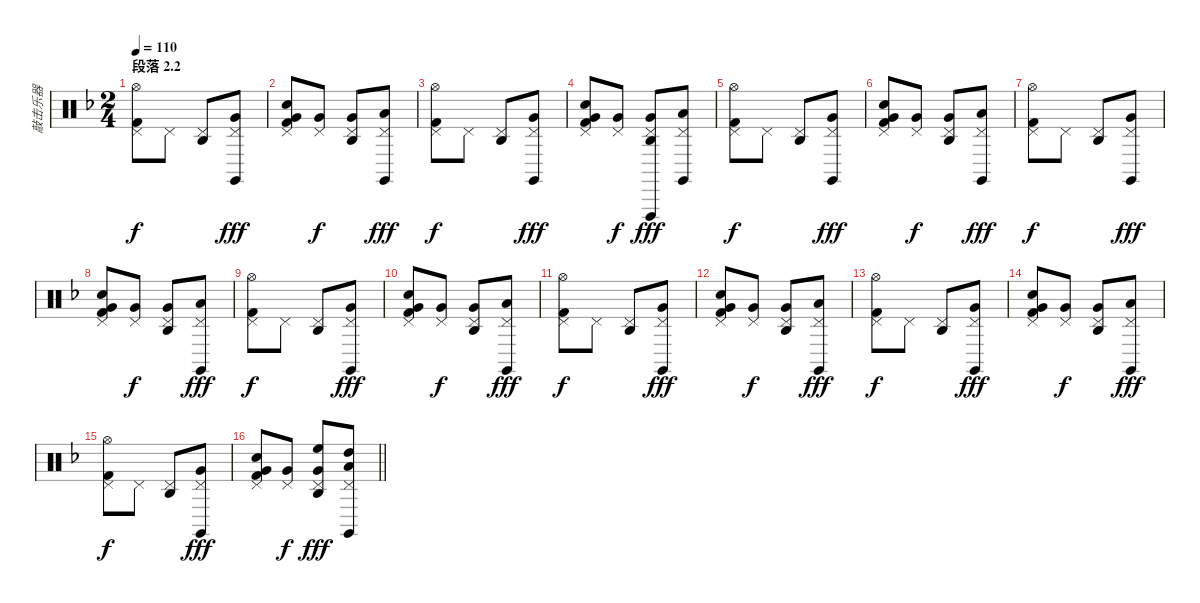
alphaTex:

\track ("敲击乐器" "敲击乐器") {instrument percussion}
\staff {score}
\articulation defaults
\ts (2 4)
\section ("" "段落 2.2")
\tempo 110
\clef neutral
\ks dminor
("Hi-Hat (open)" "Pedal Hi-Hat (hit)" "Kick (hit) 2").8{dy f} "Pedal Hi-Hat (hit)".8 ("Pedal Hi-Hat (hit)" "Agogo high (hit)").8 ("Pedal Hi-Hat (hit)" "Claves (hit)" "Very Low Tom (hit)").8{dy fff} |
("Pedal Hi-Hat (hit)" "Electric Snare (hit)" "Very Low Tom (hit)" "Kick (hit) 2").8 ("Pedal Hi-Hat (hit)" "Very Low Tom (hit)").8{dy f} ("Pedal Hi-Hat (hit)" "Agogo high (hit)" "Very Low Tom (hit)").8 ("Pedal Hi-Hat (hit)" "Claves (hit)" "Low Floor Tom (hit)").8{dy fff} |
("Hi-Hat (open)" "Pedal Hi-Hat (hit)" "Kick (hit) 2").8{dy f} "Pedal Hi-Hat (hit)".8 ("Pedal Hi-Hat (hit)" "Agogo high (hit)").8 ("Pedal Hi-Hat (hit)" "Claves (hit)" "Very Low Tom (hit)").8{dy fff} |
("Pedal Hi-Hat (hit)" "Electric Snare (hit)" "Very Low Tom (hit)" "Kick (hit) 2").8 ("Pedal Hi-Hat (hit)" "Very Low Tom (hit)").8{dy f} ("Pedal Hi-Hat (hit)" "Agogo high (hit)" "Vibraslap (hit)" "Very Low Tom (hit)").8{dy fff} ("Pedal Hi-Hat (hit)" "Claves (hit)" "Low Floor Tom (hit)").8 |
("Hi-Hat (open)" "Pedal Hi-Hat (hit)" "Kick (hit) 2").8{dy f} "Pedal Hi-Hat (hit)".8 ("Pedal Hi-Hat (hit)" "Agogo high (hit)").8 ("Pedal Hi-Hat (hit)" "Claves (hit)" "Very Low Tom (hit)").8{dy fff} |
("Pedal Hi-Hat (hit)" "Electric Snare (hit)" "Very Low Tom (hit)" "Kick (hit) 2").8 ("Pedal Hi-Hat (hit)" "Very Low Tom (hit)").8{dy f} ("Pedal Hi-Hat (hit)" "Agogo high (hit)" "Very Low Tom (hit)").8 ("Pedal Hi-Hat (hit)" "Claves (hit)" "Low Floor Tom (hit)").8{dy fff} |
("Hi-Hat (open)" "Pedal Hi-Hat (hit)" "Kick (hit) 2").8{dy f} "Pedal Hi-Hat (hit)".8 ("Pedal Hi-Hat (hit)" "Agogo high (hit)").8 ("Pedal Hi-Hat (hit)" "Claves (hit)" "Very Low Tom (hit)").8{dy fff} |
("Pedal Hi-Hat (hit)" "Electric Snare (hit)" "Very Low Tom (hit)" "Kick (hit) 2").8 ("Pedal Hi-Hat (hit)" "Very Low Tom (hit)").8{dy f} ("Pedal Hi-Hat (hit)" "Agogo high (hit)" "Very Low Tom (hit)").8 ("Pedal Hi-Hat (hit)" "Claves (hit)" "Low Floor Tom (hit)").8{dy fff} |
("Hi-Hat (open)" "Pedal Hi-Hat (hit)" "Kick (hit) 2").8{dy f} "Pedal Hi-Hat (hit)".8 ("Pedal Hi-Hat (hit)" "Agogo high (hit)").8 ("Pedal Hi-Hat (hit)" "Claves (hit)" "Very Low Tom (hit)").8{dy fff} |
("Pedal Hi-Hat (hit)" "Electric Snare (hit)" "Very Low Tom (hit)" "Kick (hit) 2").8 ("Pedal Hi-Hat (hit)" "Very Low Tom (hit)").8{dy f} ("Pedal Hi-Hat (hit)" "Agogo high (hit)" "Very Low Tom (hit)").8 ("Pedal Hi-Hat (hit)" "Claves (hit)" "Low Floor Tom (hit)").8{dy fff} |
("Hi-Hat (open)" "Pedal Hi-Hat (hit)" "Kick (hit) 2").8{dy f} "Pedal Hi-Hat (hit)".8 ("Pedal Hi-Hat (hit)" "Agogo high (hit)").8 ("Pedal Hi-Hat (hit)" "Claves (hit)" "Very Low Tom (hit)").8{dy fff} |
("Pedal Hi-Hat (hit)" "Electric Snare (hit)" "Very Low Tom (hit)" "Kick (hit) 2").8 ("Pedal Hi-Hat (hit)" "Very Low Tom (hit)").8{dy f} ("Pedal Hi-Hat (hit)" "Agogo high (hit)" "Very Low Tom (hit)").8 ("Pedal Hi-Hat (hit)" "Claves (hit)" "Low Floor Tom (hit)").8{dy fff} |
("Hi-Hat (open)" "Pedal Hi-Hat (hit)" "Kick (hit) 2").8{dy f} "Pedal Hi-Hat (hit)".8 ("Pedal Hi-Hat (hit)" "Agogo high (hit)").8 ("Pedal Hi-Hat (hit)" "Claves (hit)" "Very Low Tom (hit)").8{dy fff} |
("Pedal Hi-Hat (hit)" "Electric Snare (hit)" "Very Low Tom (hit)" "Kick (hit) 2").8 ("Pedal Hi-Hat (hit)" "Very Low Tom (hit)").8{dy f} ("Pedal Hi-Hat (hit)" "Agogo high (hit)" "Very Low Tom (hit)").8 ("Pedal Hi-Hat (hit)" "Claves (hit)" "Low Floor Tom (hit)").8{dy fff} |
("Hi-Hat (open)" "Pedal Hi-Hat (hit)" "Kick (hit) 2").8{dy f} "Pedal Hi-Hat (hit)".8 ("Pedal Hi-Hat (hit)" "Agogo high (hit)").8 ("Pedal Hi-Hat (hit)" "Claves (hit)" "Very Low Tom (hit)").8{dy fff} |
\barLineRight lightlight
("Pedal Hi-Hat (hit)" "Electric Snare (hit)" "Very Low Tom (hit)" "Kick (hit) 2").8 ("Pedal Hi-Hat (hit)" "Very Low Tom (hit)").8{dy f} ("Pedal Hi-Hat (hit)" "Agogo high (hit)" "High Floor Tom (hit)" "Very Low Tom (hit)").8{dy fff} ("Pedal Hi-Hat (hit)" "Claves (hit)" "High Tom (hit)" "Low Floor Tom (hit)").8
